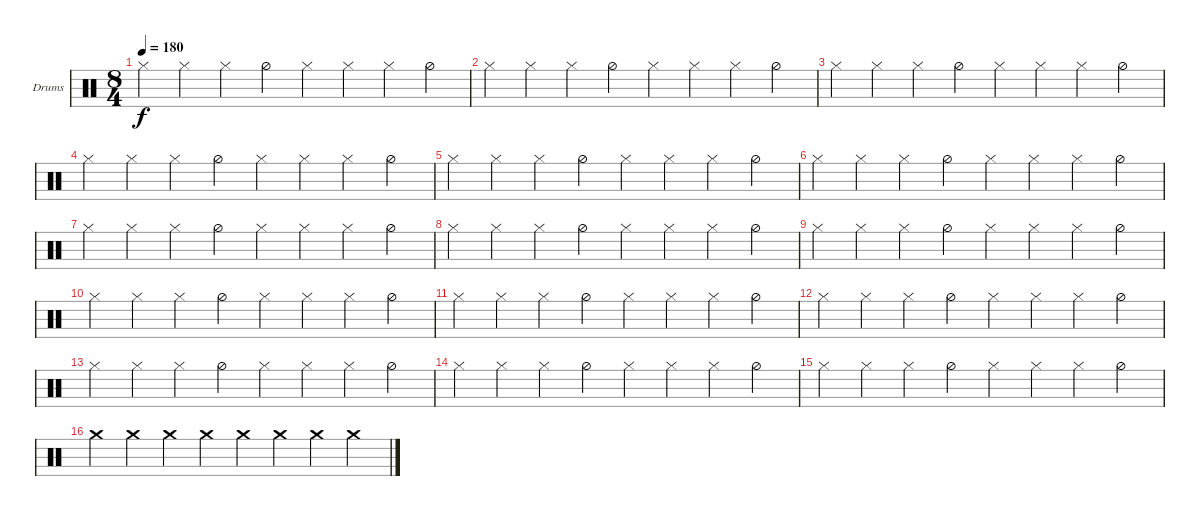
\defaultSystemsLayout 4
\bracketExtendMode groupsimilarinstruments
\firstSystemTrackNameOrientation horizontal
\otherSystemsTrackNameOrientation horizontal
\track ("Drumkit" "Drums") {instrument percussion}
\staff {score}
\articulation defaults
\ts (8 4)
\tempo 180
\clef neutral
\ks c "Hi-Hat (closed)".4{dy f} "Hi-Hat (closed)".4 "Hi-Hat (closed)".4 "Hi-Hat (half)".4 "Hi-Hat (closed)".4 "Hi-Hat (closed)".4 "Hi-Hat (closed)".4 "Hi-Hat (half)".4
|
"Hi-Hat (closed)".4 "Hi-Hat (closed)".4 "Hi-Hat (closed)".4 "Hi-Hat (half)".4 "Hi-Hat (closed)".4 "Hi-Hat (closed)".4 "Hi-Hat (closed)".4 "Hi-Hat (half)".4 |
"Hi-Hat (closed)".4 "Hi-Hat (closed)".4 "Hi-Hat (closed)".4 "Hi-Hat (half)".4 "Hi-Hat (closed)".4 "Hi-Hat (closed)".4 "Hi-Hat (closed)".4 "Hi-Hat (half)".4 |
"Hi-Hat (closed)".4 "Hi-Hat (closed)".4 "Hi-Hat (closed)".4 "Hi-Hat (half)".4 "Hi-Hat (closed)".4 "Hi-Hat (closed)".4 "Hi-Hat (closed)".4 "Hi-Hat (half)".4 |
"Hi-Hat (closed)".4 "Hi-Hat (closed)".4 "Hi-Hat (closed)".4 "Hi-Hat (half)".4 "Hi-Hat (closed)".4 "Hi-Hat (closed)".4 "Hi-Hat (closed)".4 "Hi-Hat (half)".4 |
"Hi-Hat (closed)".4 "Hi-Hat (closed)".4 "Hi-Hat (closed)".4 "Hi-Hat (half)".4 "Hi-Hat (closed)".4 "Hi-Hat (closed)".4 "Hi-Hat (closed)".4 "Hi-Hat (half)".4 |
"Hi-Hat (closed)".4 "Hi-Hat (closed)".4 "Hi-Hat (closed)".4 "Hi-Hat (half)".4 "Hi-Hat (closed)".4 "Hi-Hat (closed)".4 "Hi-Hat (closed)".4 "Hi-Hat (half)".4 |
"Hi-Hat (closed)".4 "Hi-Hat (closed)".4 "Hi-Hat (closed)".4 "Hi-Hat (half)".4 "Hi-Hat (closed)".4 "Hi-Hat (closed)".4 "Hi-Hat (closed)".4 "Hi-Hat (half)".4 |
"Hi-Hat (closed)".4 "Hi-Hat (closed)".4 "Hi-Hat (closed)".4 "Hi-Hat (half)".4 "Hi-Hat (closed)".4 "Hi-Hat (closed)".4 "Hi-Hat (closed)".4 "Hi-Hat (half)".4 |
"Hi-Hat (closed)".4 "Hi-Hat (closed)".4 "Hi-Hat (closed)".4 "Hi-Hat (half)".4 "Hi-Hat (closed)".4 "Hi-Hat (closed)".4 "Hi-Hat (closed)".4 "Hi-Hat (half)".4 |
"Hi-Hat (closed)".4 "Hi-Hat (closed)".4 "Hi-Hat (closed)".4 "Hi-Hat (half)".4 "Hi-Hat (closed)".4 "Hi-Hat (closed)".4 "Hi-Hat (closed)".4 "Hi-Hat (half)".4 |
"Hi-Hat (closed)".4 "Hi-Hat (closed)".4 "Hi-Hat (closed)".4 "Hi-Hat (half)".4 "Hi-Hat (closed)".4 "Hi-Hat (closed)".4 "Hi-Hat (closed)".4 "Hi-Hat (half)".4 |
"Hi-Hat (closed)".4 "Hi-Hat (closed)".4 "Hi-Hat (closed)".4 "Hi-Hat (half)".4 "Hi-Hat (closed)".4 "Hi-Hat (closed)".4 "Hi-Hat (closed)".4 "Hi-Hat (half)".4 |
"Hi-Hat (closed)".4 "Hi-Hat (closed)".4 "Hi-Hat (closed)".4 "Hi-Hat (half)".4 "Hi-Hat (closed)".4 "Hi-Hat (closed)".4 "Hi-Hat (closed)".4 "Hi-Hat (half)".4 |
"Hi-Hat (closed)".4 "Hi-Hat (closed)".4 "Hi-Hat (closed)".4 "Hi-Hat (half)".4 "Hi-Hat (closed)".4 "Hi-Hat (closed)".4 "Hi-Hat (closed)".4 "Hi-Hat (half)".4 |
"Crash medium (hit)".4 "Crash medium (hit)".4 "Crash medium (hit)".4 "Crash medium (hit)".4 "Crash medium (hit)".4 "Crash medium (hit)".4 "Crash medium (hit)".4 "Crash medium (hit)".4
